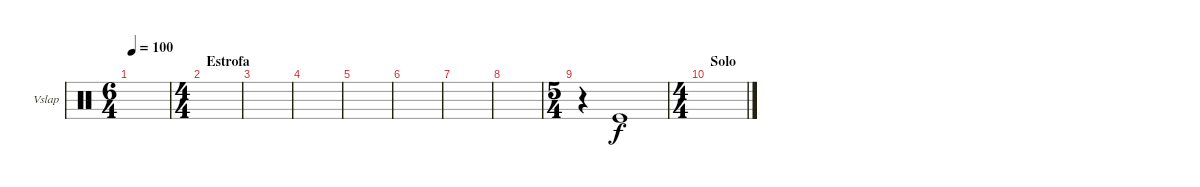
\defaultSystemsLayout 4
\bracketExtendMode groupsimilarinstruments
\firstSystemTrackNameOrientation horizontal
\otherSystemsTrackNameOrientation horizontal
\track ("Vibraslap" "Vslap") {instrument percussion}
\staff {score}
\articulation defaults
\ts (6 4)
\tempo 100
\clef neutral
\scale
0.472222
\ks c
|
\ts (4 4)
\section ("" "Estrofa")
\scale
0.472222 |
\scale
0.263889 |
\scale
0.263889 |
\scale
0.333333 |
\scale
0.333333 |
\scale
0.333333 |
\scale
0.218391 |
\ts (5 4)
\scale
0.390805 r.4 "Kick (hit)".1 |
\ts (4 4)
\section ("" "Solo")
\scale
0.390805 |
\scale
0.333333 |
\scale
0.333333 |
\scale
0.333333 |
\scale
0.333333 |
\scale
0.333333 |
\scale
0.333333
